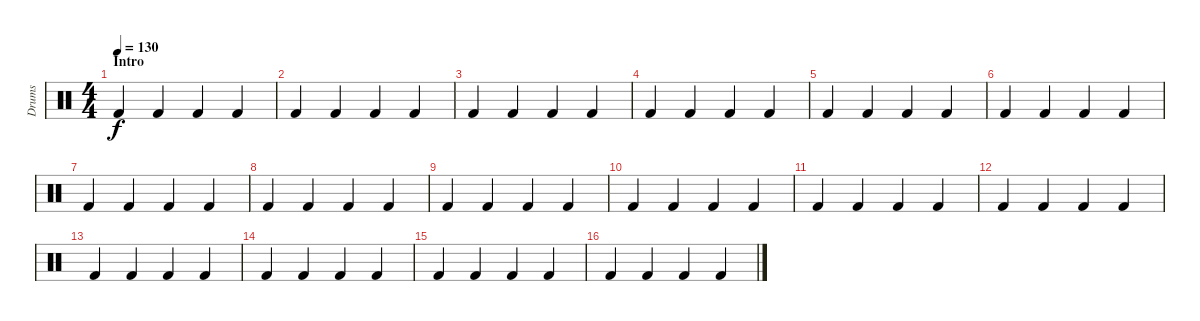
\track ("Drums" "Drums") {instrument percussion}
\staff {score}
\articulation defaults
\ts (4 4)
\section ("" "Intro")
\tempo 130
\clef neutral
\ks c "Kick (hit) 2".4{dy f} "Kick (hit) 2".4 "Kick (hit) 2".4 "Kick (hit) 2".4
|
"Kick (hit) 2".4 "Kick (hit) 2".4 "Kick (hit) 2".4 "Kick (hit) 2".4 |
"Kick (hit) 2".4 "Kick (hit) 2".4 "Kick (hit) 2".4 "Kick (hit) 2".4 |
"Kick (hit) 2".4 "Kick (hit) 2".4 "Kick (hit) 2".4 "Kick (hit) 2".4 |
"Kick (hit) 2".4 "Kick (hit) 2".4 "Kick (hit) 2".4 "Kick (hit) 2".4 |
"Kick (hit) 2".4 "Kick (hit) 2".4 "Kick (hit) 2".4 "Kick (hit) 2".4 |
"Kick (hit) 2".4 "Kick (hit) 2".4 "Kick (hit) 2".4 "Kick (hit) 2".4 |
"Kick (hit) 2".4 "Kick (hit) 2".4 "Kick (hit) 2".4 "Kick (hit) 2".4 |
"Kick (hit) 2".4 "Kick (hit) 2".4 "Kick (hit) 2".4 "Kick (hit) 2".4 |
"Kick (hit) 2".4 "Kick (hit) 2".4 "Kick (hit) 2".4 "Kick (hit) 2".4 |
"Kick (hit) 2".4 "Kick (hit) 2".4 "Kick (hit) 2".4 "Kick (hit) 2".4 |
"Kick (hit) 2".4 "Kick (hit) 2".4 "Kick (hit) 2".4 "Kick (hit) 2".4 |
"Kick (hit) 2".4 "Kick (hit) 2".4 "Kick (hit) 2".4 "Kick (hit) 2".4 |
"Kick (hit) 2".4 "Kick (hit) 2".4 "Kick (hit) 2".4 "Kick (hit) 2".4 |
"Kick (hit) 2".4 "Kick (hit) 2".4 "Kick (hit) 2".4 "Kick (hit) 2".4 |
"Kick (hit) 2".4 "Kick (hit) 2".4 "Kick (hit) 2".4 "Kick (hit) 2".4
